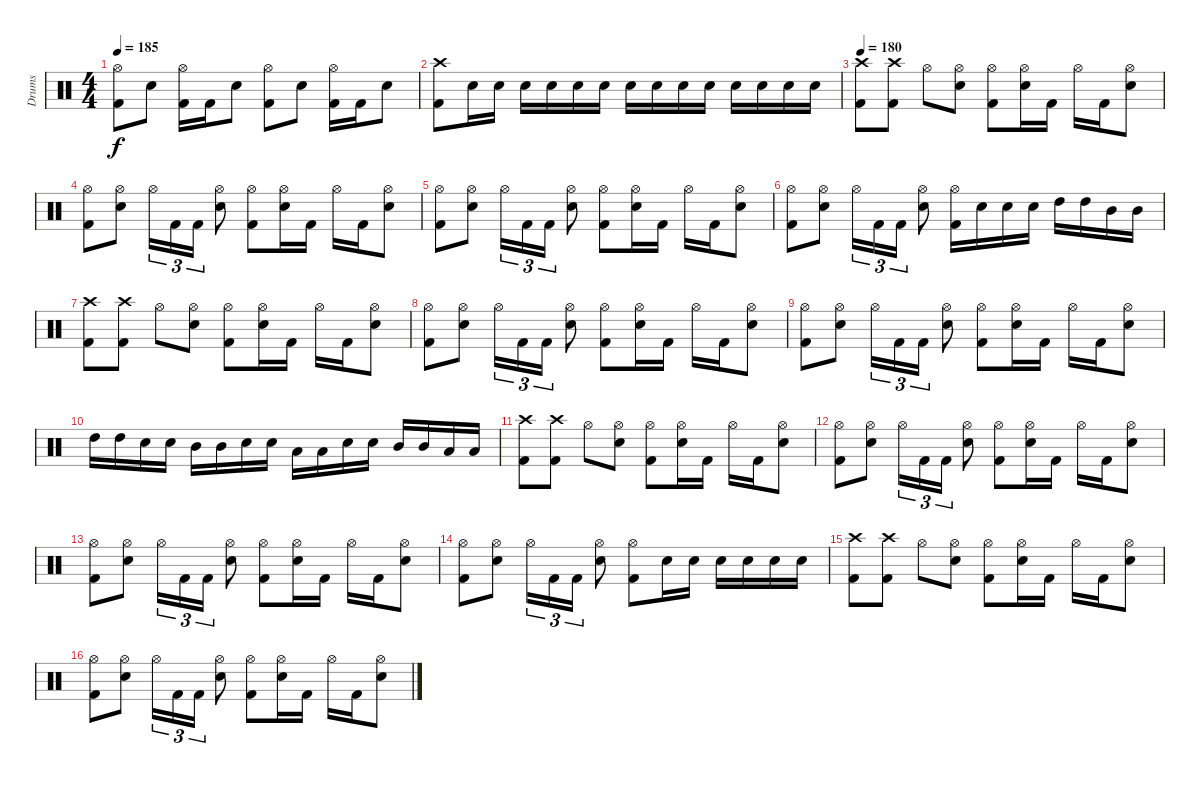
\track ("Drums" "Drums") {instrument percussion}
\staff {score}
\articulation defaults
\ts (4 4)
\tempo 185
\clef neutral
\ks c
("Hi-Hat (open)" "Kick (hit) 2").8{dy f} "Electric Snare (hit)".8 ("Hi-Hat (open)" "Kick (hit) 2").16 "Kick (hit) 2".16 "Electric Snare (hit)".8 ("Hi-Hat (open)" "Kick (hit) 2").8 "Electric Snare (hit)".8 ("Hi-Hat (open)" "Kick (hit) 2").16 "Kick (hit) 2".16 "Electric Snare (hit)".8 |
("Crash high (hit)" "Kick (hit) 2").8 "Electric Snare (hit)".16 "Electric Snare (hit)".16 "Electric Snare (hit)".16 "Electric Snare (hit)".16 "Electric Snare (hit)".16 "Electric Snare (hit)".16 "Electric Snare (hit)".16 "Electric Snare (hit)".16 "Electric Snare (hit)".16 "Electric Snare (hit)".16 "Electric Snare (hit)".16 "Electric Snare (hit)".16 "Electric Snare (hit)".16 "Electric Snare (hit)".16 |
\tempo 180
("Crash high (hit)" "Kick (hit) 2").8 ("Crash high (hit)" "Kick (hit) 2").8 "Hi-Hat (open)".8 ("Hi-Hat (open)" "Electric Snare (hit)").8 ("Hi-Hat (open)" "Kick (hit) 2").8 ("Hi-Hat (open)" "Electric Snare (hit)").16 "Kick (hit) 2".16 "Hi-Hat (open)".16 "Kick (hit) 2".16 ("Hi-Hat (open)" "Electric Snare (hit)").8 |
("Hi-Hat (open)" "Kick (hit) 2").8 ("Hi-Hat (open)" "Electric Snare (hit)").8 "Hi-Hat (open)".16{tu (3 2)} "Kick (hit) 2".16{tu (3 2)} "Kick (hit) 2".16{tu (3 2)} ("Hi-Hat (open)" "Electric Snare (hit)").8 ("Hi-Hat (open)" "Kick (hit) 2").8 ("Hi-Hat (open)" "Electric Snare (hit)").16 "Kick (hit) 2".16 "Hi-Hat (open)".16 "Kick (hit) 2".16 ("Hi-Hat (open)" "Electric Snare (hit)").8 |
("Hi-Hat (open)" "Kick (hit) 2").8 ("Hi-Hat (open)" "Electric Snare (hit)").8 "Hi-Hat (open)".16{tu (3 2)} "Kick (hit) 2".16{tu (3 2)} "Kick (hit) 2".16{tu (3 2)} ("Hi-Hat (open)" "Electric Snare (hit)").8 ("Hi-Hat (open)" "Kick (hit) 2").8 ("Hi-Hat (open)" "Electric Snare (hit)").16 "Kick (hit) 2".16 "Hi-Hat (open)".16 "Kick (hit) 2".16 ("Hi-Hat (open)" "Electric Snare (hit)").8 |
("Hi-Hat (open)" "Kick (hit) 2").8 ("Hi-Hat (open)" "Electric Snare (hit)").8 "Hi-Hat (open)".16{tu (3 2)} "Kick (hit) 2".16{tu (3 2)} "Kick (hit) 2".16{tu (3 2)} ("Hi-Hat (open)" "Electric Snare (hit)").8 ("Hi-Hat (open)" "Kick (hit) 2").16 "Electric Snare (hit)".16 "Electric Snare (hit)".16 "Electric Snare (hit)".16 "High Tom (hit)".16 "High Tom (hit)".16 "Mid Tom (hit)".16 "Mid Tom (hit)".16 |
("Crash high (hit)" "Kick (hit) 2").8 ("Crash high (hit)" "Kick (hit) 2").8 "Hi-Hat (open)".8 ("Hi-Hat (open)" "Electric Snare (hit)").8 ("Hi-Hat (open)" "Kick (hit) 2").8 ("Hi-Hat (open)" "Electric Snare (hit)").16 "Kick (hit) 2".16 "Hi-Hat (open)".16 "Kick (hit) 2".16 ("Hi-Hat (open)" "Electric Snare (hit)").8 |
("Hi-Hat (open)" "Kick (hit) 2").8 ("Hi-Hat (open)" "Electric Snare (hit)").8 "Hi-Hat (open)".16{tu (3 2)} "Kick (hit) 2".16{tu (3 2)} "Kick (hit) 2".16{tu (3 2)} ("Hi-Hat (open)" "Electric Snare (hit)").8 ("Hi-Hat (open)" "Kick (hit) 2").8 ("Hi-Hat (open)" "Electric Snare (hit)").16 "Kick (hit) 2".16 "Hi-Hat (open)".16 "Kick (hit) 2".16 ("Hi-Hat (open)" "Electric Snare (hit)").8 |
("Hi-Hat (open)" "Kick (hit) 2").8 ("Hi-Hat (open)" "Electric Snare (hit)").8 "Hi-Hat (open)".16{tu (3 2)} "Kick (hit) 2".16{tu (3 2)} "Kick (hit) 2".16{tu (3 2)} ("Hi-Hat (open)" "Electric Snare (hit)").8 ("Hi-Hat (open)" "Kick (hit) 2").8 ("Hi-Hat (open)" "Electric Snare (hit)").16 "Kick (hit) 2".16 "Hi-Hat (open)".16 "Kick (hit) 2".16 ("Hi-Hat (open)" "Electric Snare (hit)").8 |
"High Tom (hit)".16 "High Tom (hit)".16 "Electric Snare (hit)".16 "Electric Snare (hit)".16 "Mid Tom (hit)".16 "Mid Tom (hit)".16 "Electric Snare (hit)".16 "Electric Snare (hit)".16 "Low Tom (hit)".16 "Low Tom (hit)".16 "Electric Snare (hit)".16 "Electric Snare (hit)".16 "Mid Tom (hit)".16 "Mid Tom (hit)".16 "Low Tom (hit)".16 "Low Tom (hit)".16 |
("Crash high (hit)" "Kick (hit) 2").8 ("Crash high (hit)" "Kick (hit) 2").8 "Hi-Hat (open)".8 ("Hi-Hat (open)" "Electric Snare (hit)").8 ("Hi-Hat (open)" "Kick (hit) 2").8 ("Hi-Hat (open)" "Electric Snare (hit)").16 "Kick (hit) 2".16 "Hi-Hat (open)".16 "Kick (hit) 2".16 ("Hi-Hat (open)" "Electric Snare (hit)").8 |
("Hi-Hat (open)" "Kick (hit) 2").8 ("Hi-Hat (open)" "Electric Snare (hit)").8 "Hi-Hat (open)".16{tu (3 2)} "Kick (hit) 2".16{tu (3 2)} "Kick (hit) 2".16{tu (3 2)} ("Hi-Hat (open)" "Electric Snare (hit)").8 ("Hi-Hat (open)" "Kick (hit) 2").8 ("Hi-Hat (open)" "Electric Snare (hit)").16 "Kick (hit) 2".16 "Hi-Hat (open)".16 "Kick (hit) 2".16 ("Hi-Hat (open)" "Electric Snare (hit)").8 |
("Hi-Hat (open)" "Kick (hit) 2").8 ("Hi-Hat (open)" "Electric Snare (hit)").8 "Hi-Hat (open)".16{tu (3 2)} "Kick (hit) 2".16{tu (3 2)} "Kick (hit) 2".16{tu (3 2)} ("Hi-Hat (open)" "Electric Snare (hit)").8 ("Hi-Hat (open)" "Kick (hit) 2").8 ("Hi-Hat (open)" "Electric Snare (hit)").16 "Kick (hit) 2".16 "Hi-Hat (open)".16 "Kick (hit) 2".16 ("Hi-Hat (open)" "Electric Snare (hit)").8 |
("Hi-Hat (open)" "Kick (hit) 2").8 ("Hi-Hat (open)" "Electric Snare (hit)").8 "Hi-Hat (open)".16{tu (3 2)} "Kick (hit) 2".16{tu (3 2)} "Kick (hit) 2".16{tu (3 2)} ("Hi-Hat (open)" "Electric Snare (hit)").8 ("Hi-Hat (open)" "Kick (hit) 2").8 "Electric Snare (hit)".16 "Electric Snare (hit)".16 "Electric Snare (hit)".16 "Electric Snare (hit)".16 "Electric Snare (hit)".16 "Electric Snare (hit)".16 |
("Crash high (hit)" "Kick (hit) 2").8 ("Crash high (hit)" "Kick (hit) 2").8 "Hi-Hat (open)".8 ("Hi-Hat (open)" "Electric Snare (hit)").8 ("Hi-Hat (open)" "Kick (hit) 2").8 ("Hi-Hat (open)" "Electric Snare (hit)").16 "Kick (hit) 2".16 "Hi-Hat (open)".16 "Kick (hit) 2".16 ("Hi-Hat (open)" "Electric Snare (hit)").8 |
("Hi-Hat (open)" "Kick (hit) 2").8 ("Hi-Hat (open)" "Electric Snare (hit)").8 "Hi-Hat (open)".16{tu (3 2)} "Kick (hit) 2".16{tu (3 2)} "Kick (hit) 2".16{tu (3 2)} ("Hi-Hat (open)" "Electric Snare (hit)").8 ("Hi-Hat (open)" "Kick (hit) 2").8 ("Hi-Hat (open)" "Electric Snare (hit)").16 "Kick (hit) 2".16 "Hi-Hat (open)".16 "Kick (hit) 2".16 ("Hi-Hat (open)" "Electric Snare (hit)").8
